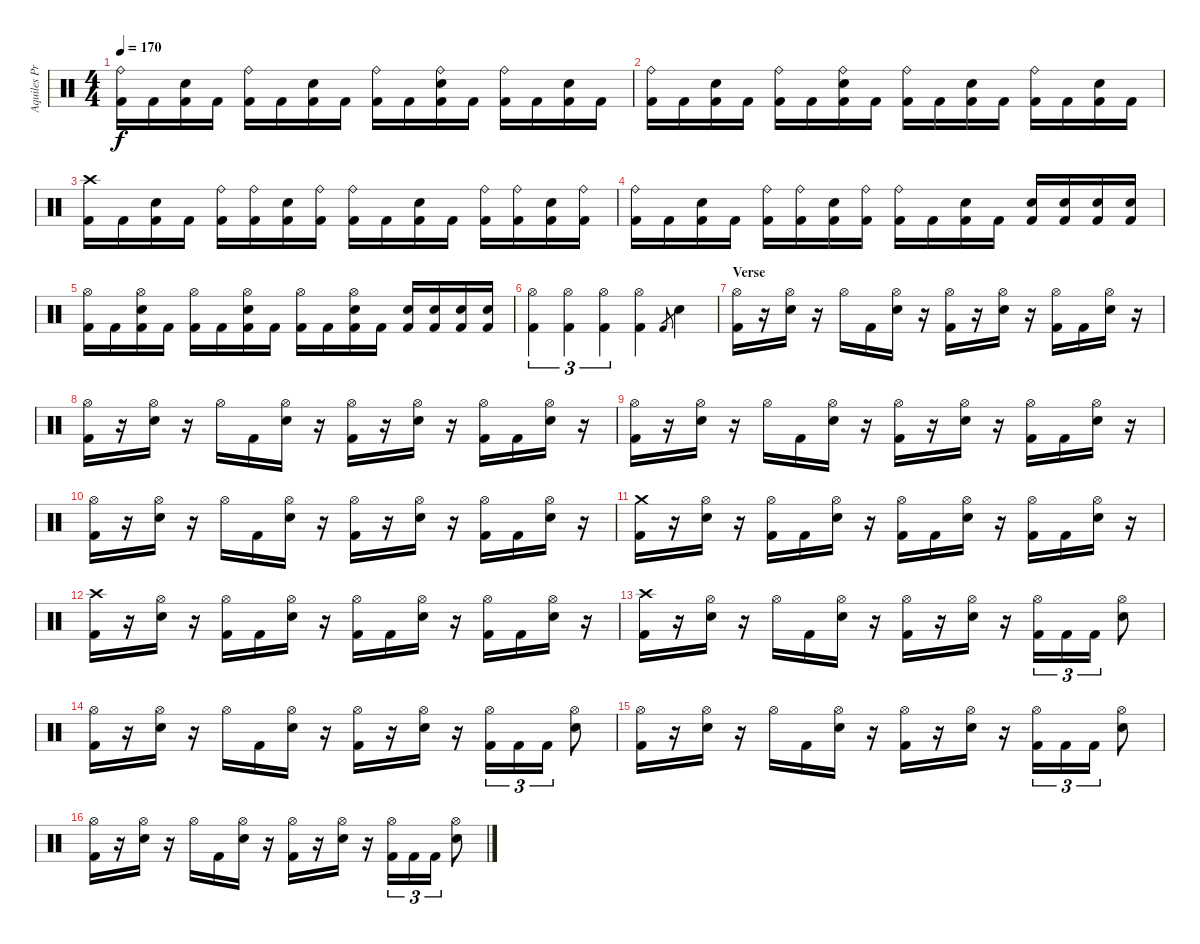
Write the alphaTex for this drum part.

\track ("Aquiles Priester" "Aquiles Pr") {instrument percussion}
\staff {score}
\articulation defaults
\ts (4 4)
\tempo 170
\clef neutral
\ks c
("Ride (bell)" "Kick (hit) 2").16{dy f} "Kick (hit) 2".16 ("Electric Snare (hit)" "Kick (hit) 2").16 "Kick (hit) 2".16 ("Ride (bell)" "Kick (hit) 2").16 "Kick (hit) 2".16 ("Electric Snare (hit)" "Kick (hit) 2").16 "Kick (hit) 2".16 ("Ride (bell)" "Kick (hit) 2").16 "Kick (hit) 2".16 ("Ride (bell)" "Electric Snare (hit)" "Kick (hit) 2").16 "Kick (hit) 2".16 ("Ride (bell)" "Kick (hit) 2").16 "Kick (hit) 2".16 ("Electric Snare (hit)" "Kick (hit) 2").16 "Kick (hit) 2".16 |
("Ride (bell)" "Kick (hit) 2").16 "Kick (hit) 2".16 ("Electric Snare (hit)" "Kick (hit) 2").16 "Kick (hit) 2".16 ("Ride (bell)" "Kick (hit) 2").16 "Kick (hit) 2".16 ("Ride (bell)" "Electric Snare (hit)" "Kick (hit) 2").16 "Kick (hit) 2".16 ("Ride (bell)" "Kick (hit) 2").16 "Kick (hit) 2".16 ("Electric Snare (hit)" "Kick (hit) 2").16 "Kick (hit) 2".16 ("Ride (bell)" "Kick (hit) 2").16 "Kick (hit) 2".16 ("Electric Snare (hit)" "Kick (hit) 2").16 "Kick (hit) 2".16 |
("Crash high (hit)" "Kick (hit) 2").16 "Kick (hit) 2".16 ("Electric Snare (hit)" "Kick (hit) 2").16 "Kick (hit) 2".16 ("Ride (bell)" "Kick (hit) 2").16 ("Ride (bell)" "Kick (hit) 2").16 ("Electric Snare (hit)" "Kick (hit) 2").16 ("Ride (bell)" "Kick (hit) 2").16 ("Ride (bell)" "Kick (hit) 2").16 "Kick (hit) 2".16 ("Electric Snare (hit)" "Kick (hit) 2").16 "Kick (hit) 2".16 ("Ride (bell)" "Kick (hit) 2").16 ("Ride (bell)" "Kick (hit) 2").16 ("Electric Snare (hit)" "Kick (hit) 2").16 ("Ride (bell)" "Kick (hit) 2").16 |
("Ride (bell)" "Kick (hit) 2").16 "Kick (hit) 2".16 ("Electric Snare (hit)" "Kick (hit) 2").16 "Kick (hit) 2".16 ("Ride (bell)" "Kick (hit) 2").16 ("Ride (bell)" "Kick (hit) 2").16 ("Electric Snare (hit)" "Kick (hit) 2").16 ("Ride (bell)" "Kick (hit) 2").16 ("Ride (bell)" "Kick (hit) 2").16 "Kick (hit) 2".16 ("Electric Snare (hit)" "Kick (hit) 2").16 "Kick (hit) 2".16 ("Electric Snare (hit)" "Kick (hit) 2").16 ("Electric Snare (hit)" "Kick (hit) 2").16 ("Electric Snare (hit)" "Kick (hit) 2").16 ("Electric Snare (hit)" "Kick (hit) 2").16 |
("Hi-Hat (open)" "Kick (hit) 2").16 "Kick (hit) 2".16 ("Hi-Hat (open)" "Electric Snare (hit)" "Kick (hit) 2").16 "Kick (hit) 2".16 ("Hi-Hat (open)" "Kick (hit) 2").16 "Kick (hit) 2".16 ("Hi-Hat (open)" "Electric Snare (hit)" "Kick (hit) 2").16 "Kick (hit) 2".16 ("Hi-Hat (open)" "Kick (hit) 2").16 "Kick (hit) 2".16 ("Hi-Hat (open)" "Electric Snare (hit)" "Kick (hit) 2").16 "Kick (hit) 2".16 ("Electric Snare (hit)" "Kick (hit) 2").16 ("Electric Snare (hit)" "Kick (hit) 2").16 ("Electric Snare (hit)" "Kick (hit) 2").16 ("Electric Snare (hit)" "Kick (hit) 2").16 |
("Hi-Hat (open)" "Kick (hit) 2").4{tu (3 2)} ("Hi-Hat (open)" "Kick (hit) 2").4{tu (3 2)} ("Hi-Hat (open)" "Kick (hit) 2").4{tu (3 2)} ("Hi-Hat (open)" "Kick (hit) 2").4 "Kick (hit) 2".8{gr} "Electric Snare (hit)".4 |
\section ("" "Verse")
("Hi-Hat (open)" "Kick (hit) 2").16 r.16 ("Hi-Hat (open)" "Electric Snare (hit)").16 r.16 "Hi-Hat (open)".16 "Kick (hit) 2".16 ("Hi-Hat (open)" "Electric Snare (hit)").16 r.16 ("Hi-Hat (open)" "Kick (hit) 2").16 r.16 ("Hi-Hat (open)" "Electric Snare (hit)").16 r.16 ("Hi-Hat (open)" "Kick (hit) 2").16 "Kick (hit) 2".16 ("Hi-Hat (open)" "Electric Snare (hit)").16 r.16 |
("Kick (hit) 2" "Hi-Hat (open)").16 r.16 ("Electric Snare (hit)" "Hi-Hat (open)").16 r.16 "Hi-Hat (open)".16 "Kick (hit) 2".16 ("Electric Snare (hit)" "Hi-Hat (open)").16 r.16 ("Kick (hit) 2" "Hi-Hat (open)").16 r.16 ("Electric Snare (hit)" "Hi-Hat (open)").16 r.16 ("Kick (hit) 2" "Hi-Hat (open)").16 "Kick (hit) 2".16 ("Electric Snare (hit)" "Hi-Hat (open)").16 r.16 |
("Kick (hit) 2" "Hi-Hat (open)").16 r.16 ("Electric Snare (hit)" "Hi-Hat (open)").16 r.16 "Hi-Hat (open)".16 "Kick (hit) 2".16 ("Electric Snare (hit)" "Hi-Hat (open)").16 r.16 ("Kick (hit) 2" "Hi-Hat (open)").16 r.16 ("Electric Snare (hit)" "Hi-Hat (open)").16 r.16 ("Kick (hit) 2" "Hi-Hat (open)").16 "Kick (hit) 2".16 ("Electric Snare (hit)" "Hi-Hat (open)").16 r.16 |
("Kick (hit) 2" "Hi-Hat (open)").16 r.16 ("Electric Snare (hit)" "Hi-Hat (open)").16 r.16 "Hi-Hat (open)".16 "Kick (hit) 2".16 ("Electric Snare (hit)" "Hi-Hat (open)").16 r.16 ("Kick (hit) 2" "Hi-Hat (open)").16 r.16 ("Electric Snare (hit)" "Hi-Hat (open)").16 r.16 ("Kick (hit) 2" "Hi-Hat (open)").16 "Kick (hit) 2".16 ("Electric Snare (hit)" "Hi-Hat (open)").16 r.16 |
("Kick (hit) 2" "Crash medium (hit)").16 r.16 ("Electric Snare (hit)" "Hi-Hat (open)").16 r.16 ("Kick (hit) 2" "Hi-Hat (open)").16 "Kick (hit) 2".16 ("Electric Snare (hit)" "Hi-Hat (open)").16 r.16 ("Kick (hit) 2" "Hi-Hat (open)").16 "Kick (hit) 2".16 ("Electric Snare (hit)" "Hi-Hat (open)").16 r.16 ("Kick (hit) 2" "Hi-Hat (open)").16 "Kick (hit) 2".16 ("Electric Snare (hit)" "Hi-Hat (open)").16 r.16 |
("Kick (hit) 2" "Crash high (hit)").16 r.16 ("Electric Snare (hit)" "Hi-Hat (open)").16 r.16 ("Kick (hit) 2" "Hi-Hat (open)").16 "Kick (hit) 2".16 ("Electric Snare (hit)" "Hi-Hat (open)").16 r.16 ("Kick (hit) 2" "Hi-Hat (open)").16 "Kick (hit) 2".16 ("Electric Snare (hit)" "Hi-Hat (open)").16 r.16 ("Kick (hit) 2" "Hi-Hat (open)").16 "Kick (hit) 2".16 ("Electric Snare (hit)" "Hi-Hat (open)").16 r.16 |
("Kick (hit) 2" "Crash high (hit)").16 r.16 ("Electric Snare (hit)" "Hi-Hat (open)").16 r.16 "Hi-Hat (open)".16 "Kick (hit) 2".16 ("Electric Snare (hit)" "Hi-Hat (open)").16 r.16 ("Kick (hit) 2" "Hi-Hat (open)").16 r.16 ("Electric Snare (hit)" "Hi-Hat (open)").16 r.16 ("Hi-Hat (open)" "Kick (hit) 2").16{tu (3 2)} "Kick (hit) 2".16{tu (3 2)} "Kick (hit) 2".16{tu (3 2)} ("Hi-Hat (open)" "Electric Snare (hit)").8 |
("Kick (hit) 2" "Hi-Hat (open)").16 r.16 ("Electric Snare (hit)" "Hi-Hat (open)").16 r.16 "Hi-Hat (open)".16 "Kick (hit) 2".16 ("Electric Snare (hit)" "Hi-Hat (open)").16 r.16 ("Kick (hit) 2" "Hi-Hat (open)").16 r.16 ("Electric Snare (hit)" "Hi-Hat (open)").16 r.16 ("Hi-Hat (open)" "Kick (hit) 2").16{tu (3 2)} "Kick (hit) 2".16{tu (3 2)} "Kick (hit) 2".16{tu (3 2)} ("Hi-Hat (open)" "Electric Snare (hit)").8 |
("Kick (hit) 2" "Hi-Hat (open)").16 r.16 ("Electric Snare (hit)" "Hi-Hat (open)").16 r.16 "Hi-Hat (open)".16 "Kick (hit) 2".16 ("Electric Snare (hit)" "Hi-Hat (open)").16 r.16 ("Kick (hit) 2" "Hi-Hat (open)").16 r.16 ("Electric Snare (hit)" "Hi-Hat (open)").16 r.16 ("Hi-Hat (open)" "Kick (hit) 2").16{tu (3 2)} "Kick (hit) 2".16{tu (3 2)} "Kick (hit) 2".16{tu (3 2)} ("Hi-Hat (open)" "Electric Snare (hit)").8 |
("Kick (hit) 2" "Hi-Hat (open)").16 r.16 ("Electric Snare (hit)" "Hi-Hat (open)").16 r.16 "Hi-Hat (open)".16 "Kick (hit) 2".16 ("Electric Snare (hit)" "Hi-Hat (open)").16 r.16 ("Kick (hit) 2" "Hi-Hat (open)").16 r.16 ("Electric Snare (hit)" "Hi-Hat (open)").16 r.16 ("Hi-Hat (open)" "Kick (hit) 2").16{tu (3 2)} "Kick (hit) 2".16{tu (3 2)} "Kick (hit) 2".16{tu (3 2)} ("Hi-Hat (open)" "Electric Snare (hit)").8
